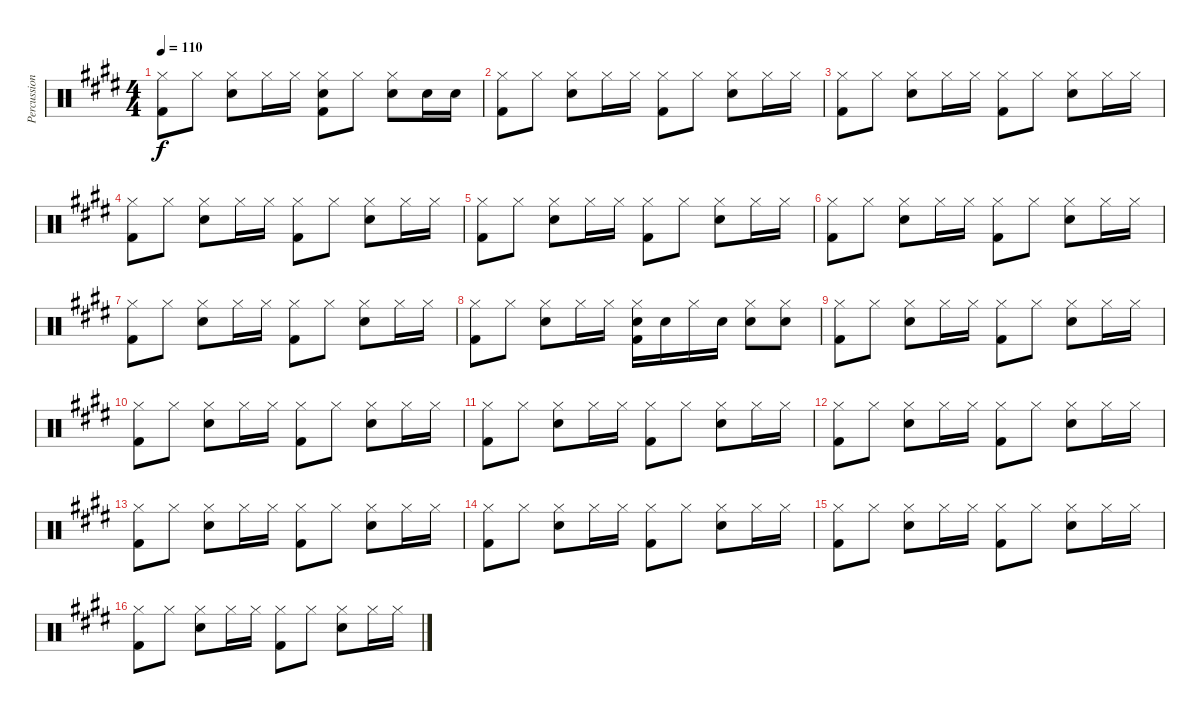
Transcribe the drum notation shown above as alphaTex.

\track ("Percussion" "Percussion") {instrument percussion}
\staff {score}
\articulation defaults
\ts (4 4)
\tempo 110
\clef neutral
\ks e
("Hi-Hat (closed)" "Kick (hit) 2").8{dy f} "Hi-Hat (closed)".8 ("Hi-Hat (closed)" "Snare (hit) 2").8 "Hi-Hat (closed)".16 "Hi-Hat (closed)".16 ("Hi-Hat (closed)" "Snare (hit) 2" "Kick (hit) 2").8 "Hi-Hat (closed)".8 ("Hi-Hat (closed)" "Snare (hit) 2").8 "Snare (hit) 2".16 "Snare (hit) 2".16 |
("Hi-Hat (closed)" "Kick (hit) 2").8 "Hi-Hat (closed)".8 ("Hi-Hat (closed)" "Snare (hit) 2").8 "Hi-Hat (closed)".16 "Hi-Hat (closed)".16 ("Hi-Hat (closed)" "Kick (hit) 2").8 "Hi-Hat (closed)".8 ("Hi-Hat (closed)" "Snare (hit) 2").8 "Hi-Hat (closed)".16 "Hi-Hat (closed)".16 |
("Hi-Hat (closed)" "Kick (hit) 2").8 "Hi-Hat (closed)".8 ("Hi-Hat (closed)" "Snare (hit) 2").8 "Hi-Hat (closed)".16 "Hi-Hat (closed)".16 ("Hi-Hat (closed)" "Kick (hit) 2").8 "Hi-Hat (closed)".8 ("Hi-Hat (closed)" "Snare (hit) 2").8 "Hi-Hat (closed)".16 "Hi-Hat (closed)".16 |
("Hi-Hat (closed)" "Kick (hit) 2").8 "Hi-Hat (closed)".8 ("Hi-Hat (closed)" "Snare (hit) 2").8 "Hi-Hat (closed)".16 "Hi-Hat (closed)".16 ("Hi-Hat (closed)" "Kick (hit) 2").8 "Hi-Hat (closed)".8 ("Hi-Hat (closed)" "Snare (hit) 2").8 "Hi-Hat (closed)".16 "Hi-Hat (closed)".16 |
("Hi-Hat (closed)" "Kick (hit) 2").8 "Hi-Hat (closed)".8 ("Hi-Hat (closed)" "Snare (hit) 2").8 "Hi-Hat (closed)".16 "Hi-Hat (closed)".16 ("Hi-Hat (closed)" "Kick (hit) 2").8 "Hi-Hat (closed)".8 ("Hi-Hat (closed)" "Snare (hit) 2").8 "Hi-Hat (closed)".16 "Hi-Hat (closed)".16 |
("Hi-Hat (closed)" "Kick (hit) 2").8 "Hi-Hat (closed)".8 ("Hi-Hat (closed)" "Snare (hit) 2").8 "Hi-Hat (closed)".16 "Hi-Hat (closed)".16 ("Hi-Hat (closed)" "Kick (hit) 2").8 "Hi-Hat (closed)".8 ("Hi-Hat (closed)" "Snare (hit) 2").8 "Hi-Hat (closed)".16 "Hi-Hat (closed)".16 |
("Hi-Hat (closed)" "Kick (hit) 2").8 "Hi-Hat (closed)".8 ("Hi-Hat (closed)" "Snare (hit) 2").8 "Hi-Hat (closed)".16 "Hi-Hat (closed)".16 ("Hi-Hat (closed)" "Kick (hit) 2").8 "Hi-Hat (closed)".8 ("Hi-Hat (closed)" "Snare (hit) 2").8 "Hi-Hat (closed)".16 "Hi-Hat (closed)".16 |
("Hi-Hat (closed)" "Kick (hit) 2").8 "Hi-Hat (closed)".8 ("Hi-Hat (closed)" "Snare (hit) 2").8 "Hi-Hat (closed)".16 "Hi-Hat (closed)".16 ("Hi-Hat (closed)" "Snare (hit) 2" "Kick (hit) 2").16 "Snare (hit) 2".16 "Hi-Hat (closed)".16 "Snare (hit) 2".16 ("Hi-Hat (closed)" "Snare (hit) 2").8 ("Hi-Hat (closed)" "Snare (hit) 2").8 |
("Hi-Hat (closed)" "Kick (hit) 2").8 "Hi-Hat (closed)".8 ("Hi-Hat (closed)" "Snare (hit) 2").8 "Hi-Hat (closed)".16 "Hi-Hat (closed)".16 ("Hi-Hat (closed)" "Kick (hit) 2").8 "Hi-Hat (closed)".8 ("Hi-Hat (closed)" "Snare (hit) 2").8 "Hi-Hat (closed)".16 "Hi-Hat (closed)".16 |
("Hi-Hat (closed)" "Kick (hit) 2").8 "Hi-Hat (closed)".8 ("Hi-Hat (closed)" "Snare (hit) 2").8 "Hi-Hat (closed)".16 "Hi-Hat (closed)".16 ("Hi-Hat (closed)" "Kick (hit) 2").8 "Hi-Hat (closed)".8 ("Hi-Hat (closed)" "Snare (hit) 2").8 "Hi-Hat (closed)".16 "Hi-Hat (closed)".16 |
("Hi-Hat (closed)" "Kick (hit) 2").8 "Hi-Hat (closed)".8 ("Hi-Hat (closed)" "Snare (hit) 2").8 "Hi-Hat (closed)".16 "Hi-Hat (closed)".16 ("Hi-Hat (closed)" "Kick (hit) 2").8 "Hi-Hat (closed)".8 ("Hi-Hat (closed)" "Snare (hit) 2").8 "Hi-Hat (closed)".16 "Hi-Hat (closed)".16 |
("Hi-Hat (closed)" "Kick (hit) 2").8 "Hi-Hat (closed)".8 ("Hi-Hat (closed)" "Snare (hit) 2").8 "Hi-Hat (closed)".16 "Hi-Hat (closed)".16 ("Hi-Hat (closed)" "Kick (hit) 2").8 "Hi-Hat (closed)".8 ("Hi-Hat (closed)" "Snare (hit) 2").8 "Hi-Hat (closed)".16 "Hi-Hat (closed)".16 |
("Hi-Hat (closed)" "Kick (hit) 2").8 "Hi-Hat (closed)".8 ("Hi-Hat (closed)" "Snare (hit) 2").8 "Hi-Hat (closed)".16 "Hi-Hat (closed)".16 ("Hi-Hat (closed)" "Kick (hit) 2").8 "Hi-Hat (closed)".8 ("Hi-Hat (closed)" "Snare (hit) 2").8 "Hi-Hat (closed)".16 "Hi-Hat (closed)".16 |
("Hi-Hat (closed)" "Kick (hit) 2").8 "Hi-Hat (closed)".8 ("Hi-Hat (closed)" "Snare (hit) 2").8 "Hi-Hat (closed)".16 "Hi-Hat (closed)".16 ("Hi-Hat (closed)" "Kick (hit) 2").8 "Hi-Hat (closed)".8 ("Hi-Hat (closed)" "Snare (hit) 2").8 "Hi-Hat (closed)".16 "Hi-Hat (closed)".16 |
("Hi-Hat (closed)" "Kick (hit) 2").8 "Hi-Hat (closed)".8 ("Hi-Hat (closed)" "Snare (hit) 2").8 "Hi-Hat (closed)".16 "Hi-Hat (closed)".16 ("Hi-Hat (closed)" "Kick (hit) 2").8 "Hi-Hat (closed)".8 ("Hi-Hat (closed)" "Snare (hit) 2").8 "Hi-Hat (closed)".16 "Hi-Hat (closed)".16 |
("Hi-Hat (closed)" "Kick (hit) 2").8 "Hi-Hat (closed)".8 ("Hi-Hat (closed)" "Snare (hit) 2").8 "Hi-Hat (closed)".16 "Hi-Hat (closed)".16 ("Hi-Hat (closed)" "Kick (hit) 2").8 "Hi-Hat (closed)".8 ("Hi-Hat (closed)" "Snare (hit) 2").8 "Hi-Hat (closed)".16 "Hi-Hat (closed)".16
